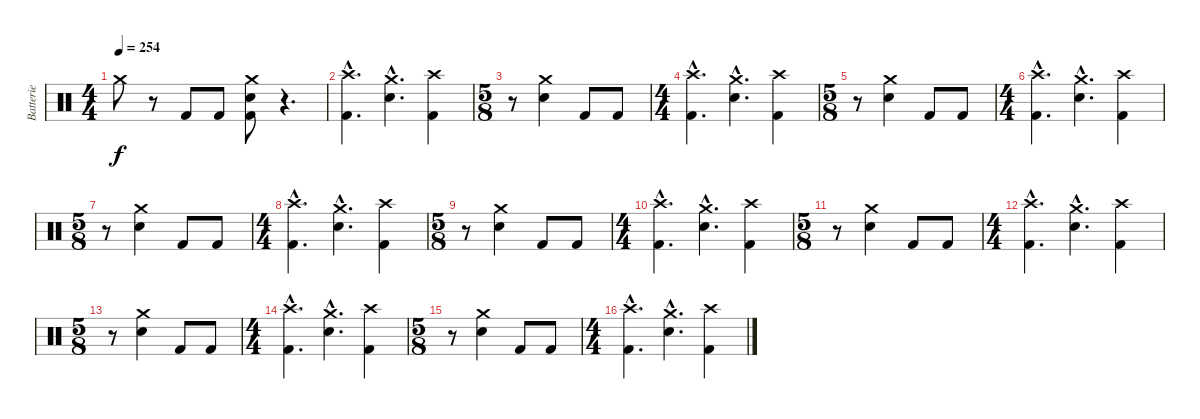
\track ("Batterie" "Batterie") {instrument percussion}
\staff {score}
\articulation defaults
\ts (4 4)
\tempo 254
\clef neutral
\ks c "Crash medium (hit)".8{dy f}
r.8 "Kick (hit) 2".8 "Kick (hit) 2".8 ("Crash medium (hit)" "Electric Snare (hit)" "Kick (hit) 2").8 r.4{d} |
\section ("" "")
("Crash high (hit)"{hac} "Kick (hit) 2"{hac}).4{d} ("Crash medium (hit)"{hac} "Electric Snare (hit)"{hac}).4{d} ("Crash high (hit)" "Kick (hit) 2").4 |
\ts (5 8)
r.8 ("Crash medium (hit)" "Electric Snare (hit)").4 "Kick (hit) 2".8 "Kick (hit) 2".8 |
\ts (4 4)
("Crash high (hit)"{hac} "Kick (hit) 2"{hac}).4{d} ("Crash medium (hit)"{hac} "Electric Snare (hit)"{hac}).4{d} ("Crash high (hit)" "Kick (hit) 2").4 |
\ts (5 8)
r.8 ("Crash medium (hit)" "Electric Snare (hit)").4 "Kick (hit) 2".8 "Kick (hit) 2".8 |
\ts (4 4)
("Crash high (hit)"{hac} "Kick (hit) 2"{hac}).4{d} ("Crash medium (hit)"{hac} "Electric Snare (hit)"{hac}).4{d} ("Crash high (hit)" "Kick (hit) 2").4 |
\ts (5 8)
r.8 ("Crash medium (hit)" "Electric Snare (hit)").4 "Kick (hit) 2".8 "Kick (hit) 2".8 |
\ts (4 4)
("Crash high (hit)"{hac} "Kick (hit) 2"{hac}).4{d} ("Crash medium (hit)"{hac} "Electric Snare (hit)"{hac}).4{d} ("Crash high (hit)" "Kick (hit) 2").4 |
\ts (5 8)
r.8 ("Crash medium (hit)" "Electric Snare (hit)").4 "Kick (hit) 2".8 "Kick (hit) 2".8 |
\ts (4 4)
("Crash high (hit)"{hac} "Kick (hit) 2"{hac}).4{d} ("Crash medium (hit)"{hac} "Electric Snare (hit)"{hac}).4{d} ("Crash high (hit)" "Kick (hit) 2").4 |
\ts (5 8)
r.8 ("Crash medium (hit)" "Electric Snare (hit)").4 "Kick (hit) 2".8 "Kick (hit) 2".8 |
\ts (4 4)
("Crash high (hit)"{hac} "Kick (hit) 2"{hac}).4{d} ("Crash medium (hit)"{hac} "Electric Snare (hit)"{hac}).4{d} ("Crash high (hit)" "Kick (hit) 2").4 |
\ts (5 8)
r.8 ("Crash medium (hit)" "Electric Snare (hit)").4 "Kick (hit) 2".8 "Kick (hit) 2".8 |
\ts (4 4)
("Crash high (hit)"{hac} "Kick (hit) 2"{hac}).4{d} ("Crash medium (hit)"{hac} "Electric Snare (hit)"{hac}).4{d} ("Crash high (hit)" "Kick (hit) 2").4 |
\ts (5 8)
r.8 ("Crash medium (hit)" "Electric Snare (hit)").4 "Kick (hit) 2".8 "Kick (hit) 2".8 |
\ts (4 4)
("Crash high (hit)"{hac} "Kick (hit) 2"{hac}).4{d} ("Crash medium (hit)"{hac} "Electric Snare (hit)"{hac}).4{d} ("Crash high (hit)" "Kick (hit) 2").4
